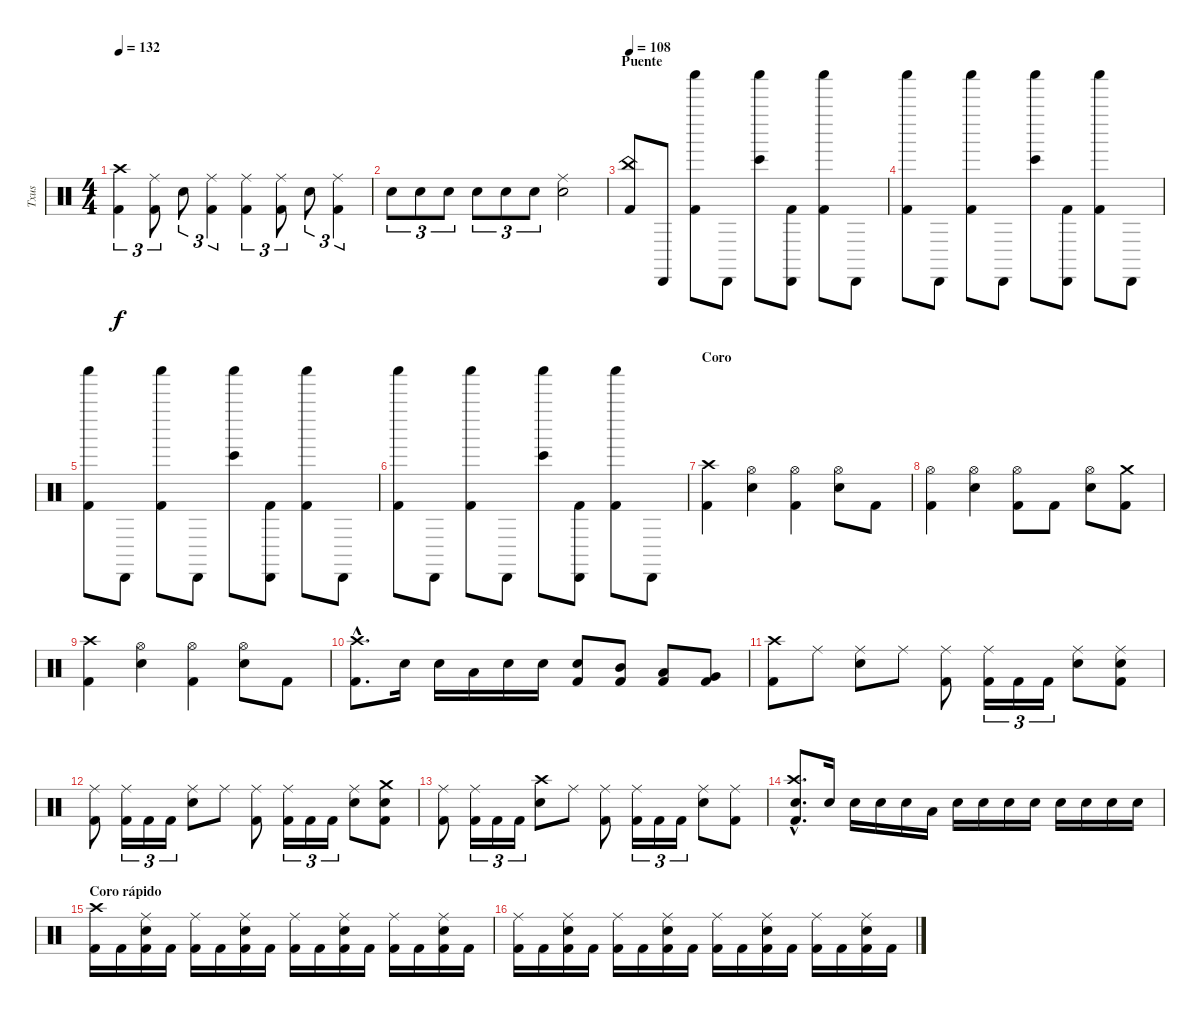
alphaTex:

\track ("Txus" "Txus") {instrument percussion}
\staff {score}
\articulation defaults
\ts (4 4)
\tempo 132
\clef neutral
\ks c
("Kick (hit) 2" "Crash high (hit)").4{tu (3 2) dy f} ("Kick (hit) 2" "Ride (middle)").8{tu (3 2)} "Electric Snare (hit)".8{tu (3 2)} ("Kick (hit) 2" "Ride (middle)").4{tu (3 2)} ("Kick (hit) 2" "Ride (middle)").4{tu (3 2)} ("Kick (hit) 2" "Ride (middle)").8{tu (3 2)} "Electric Snare (hit)".8{tu (3 2)} ("Kick (hit) 2" "Ride (middle)").4{tu (3 2)} |
"Electric Snare (hit)".8{tu (3 2)} "Electric Snare (hit)".8{tu (3 2)} "Electric Snare (hit)".8{tu (3 2)} "Electric Snare (hit)".8{tu (3 2)} "Electric Snare (hit)".8{tu (3 2)} "Electric Snare (hit)".8{tu (3 2)} ("Electric Snare (hit)" "Ride (middle)").2 |
\section ("" "Puente")
\tempo 108
("Kick (hit) 2" "China (hit)").8{volume 16} "Cabasa (hit)".8{volume 6} ("Kick (hit) 2" "Shaker (hit)").8{volume 16} "Cabasa (hit)".8{volume 6} ("Bongo High (hit)" "Shaker (hit)").8{volume 16} ("Kick (hit) 2" "Cabasa (hit)").8{volume 6} ("Kick (hit) 2" "Shaker (hit)").8{volume 16} "Cabasa (hit)".8{volume 6} |
("Kick (hit) 2" "Shaker (hit)").8{volume 16} "Cabasa (hit)".8{volume 6} ("Kick (hit) 2" "Shaker (hit)").8{volume 16} "Cabasa (hit)".8{volume 6} ("Bongo High (hit)" "Shaker (hit)").8{volume 16} ("Kick (hit) 2" "Cabasa (hit)").8{volume 6} ("Kick (hit) 2" "Shaker (hit)").8{volume 16} "Cabasa (hit)".8{volume 6} |
("Kick (hit) 2" "Shaker (hit)").8{volume 16} "Cabasa (hit)".8{volume 6} ("Kick (hit) 2" "Shaker (hit)").8{volume 16} "Cabasa (hit)".8{volume 6} ("Bongo High (hit)" "Shaker (hit)").8{volume 16} ("Kick (hit) 2" "Cabasa (hit)").8{volume 6} ("Kick (hit) 2" "Shaker (hit)").8{volume 16} "Cabasa (hit)".8{volume 6} |
("Kick (hit) 2" "Shaker (hit)").8{volume 16} "Cabasa (hit)".8{volume 6} ("Kick (hit) 2" "Shaker (hit)").8{volume 16} "Cabasa (hit)".8{volume 6} ("Bongo High (hit)" "Shaker (hit)").8{volume 16} ("Kick (hit) 2" "Cabasa (hit)").8{volume 6} ("Kick (hit) 2" "Shaker (hit)").8{volume 16} "Cabasa (hit)".8{volume 6} |
\section ("" "Coro")
("Kick (hit) 2" "Crash high (hit)").4{volume 16} ("Electric Snare (hit)" "Hi-Hat (open)").4 ("Kick (hit) 2" "Hi-Hat (open)").4 ("Electric Snare (hit)" "Hi-Hat (open)").8 "Kick (hit) 2".8 |
("Kick (hit) 2" "Hi-Hat (open)").4 ("Electric Snare (hit)" "Hi-Hat (open)").4 ("Kick (hit) 2" "Hi-Hat (open)").8 "Kick (hit) 2".8 ("Electric Snare (hit)" "Hi-Hat (open)").8 ("Kick (hit) 2" "Crash medium (hit)").8 |
("Kick (hit) 2" "Crash high (hit)").4 ("Electric Snare (hit)" "Hi-Hat (open)").4 ("Kick (hit) 2" "Hi-Hat (open)").4 ("Electric Snare (hit)" "Hi-Hat (open)").8 "Kick (hit) 2".8 |
("Kick (hit) 2"{hac} "Crash high (hit)"{hac}).8{d} "Electric Snare (hit)".16 "Electric Snare (hit)".16 "Low Tom (hit)".16 "Electric Snare (hit)".16 "Electric Snare (hit)".16 ("Kick (hit) 2" "Electric Snare (hit)").8 ("Kick (hit) 2" "Mid Tom (hit)").8 ("Kick (hit) 2" "Low Tom (hit)").8 ("Kick (hit) 2" "Very Low Tom (hit)").8 |
("Kick (hit) 2" "Crash high (hit)").8 "Ride (middle)".8 ("Electric Snare (hit)" "Ride (middle)").8 "Ride (middle)".8 ("Kick (hit) 2" "Ride (middle)").8 ("Kick (hit) 2" "Ride (middle)").16{tu (3 2)} "Kick (hit) 2".16{tu (3 2)} "Kick (hit) 2".16{tu (3 2)} ("Electric Snare (hit)" "Ride (middle)").8 ("Kick (hit) 2" "Electric Snare (hit)" "Ride (middle)").8 |
("Kick (hit) 2" "Ride (middle)").8 ("Kick (hit) 2" "Ride (middle)").16{tu (3 2)} "Kick (hit) 2".16{tu (3 2)} "Kick (hit) 2".16{tu (3 2)} ("Electric Snare (hit)" "Ride (middle)").8 "Ride (middle)".8 ("Kick (hit) 2" "Ride (middle)").8 ("Kick (hit) 2" "Ride (middle)").16{tu (3 2)} "Kick (hit) 2".16{tu (3 2)} "Kick (hit) 2".16{tu (3 2)} ("Electric Snare (hit)" "Ride (middle)").8 ("Kick (hit) 2" "Electric Snare (hit)" "Crash medium (hit)").8 |
("Kick (hit) 2" "Ride (middle)").8 ("Kick (hit) 2" "Ride (middle)").16{tu (3 2)} "Kick (hit) 2".16{tu (3 2)} "Kick (hit) 2".16{tu (3 2)} ("Electric Snare (hit)" "Crash high (hit)").8 "Ride (middle)".8 ("Kick (hit) 2" "Ride (middle)").8 ("Kick (hit) 2" "Ride (middle)").16{tu (3 2)} "Kick (hit) 2".16{tu (3 2)} "Kick (hit) 2".16{tu (3 2)} ("Electric Snare (hit)" "Ride (middle)").8 ("Kick (hit) 2" "Ride (middle)").8 |
("Kick (hit) 2"{hac} "Electric Snare (hit)"{hac} "Crash high (hit)"{hac}).8{d} "Electric Snare (hit)".16 "Electric Snare (hit)".16 "Electric Snare (hit)".16 "Electric Snare (hit)".16 "Low Tom (hit)".16 "Electric Snare (hit)".16 "Electric Snare (hit)".16 "Electric Snare (hit)".16 "Electric Snare (hit)".16 "Electric Snare (hit)".16 "Electric Snare (hit)".16 "Electric Snare (hit)".16 "Electric Snare (hit)".16 |
\section ("" "Coro rápido")
("Kick (hit) 2" "Crash high (hit)").16 "Kick (hit) 2".16 ("Kick (hit) 2" "Electric Snare (hit)" "Ride (middle)").16 "Kick (hit) 2".16 ("Kick (hit) 2" "Ride (middle)").16 "Kick (hit) 2".16 ("Kick (hit) 2" "Electric Snare (hit)" "Ride (middle)").16 "Kick (hit) 2".16 ("Kick (hit) 2" "Ride (middle)").16 "Kick (hit) 2".16 ("Kick (hit) 2" "Electric Snare (hit)" "Ride (middle)").16 "Kick (hit) 2".16 ("Kick (hit) 2" "Ride (middle)").16 "Kick (hit) 2".16 ("Kick (hit) 2" "Electric Snare (hit)" "Ride (middle)").16 "Kick (hit) 2".16 |
("Kick (hit) 2" "Ride (middle)").16 "Kick (hit) 2".16 ("Kick (hit) 2" "Electric Snare (hit)" "Ride (middle)").16 "Kick (hit) 2".16 ("Kick (hit) 2" "Ride (middle)").16 "Kick (hit) 2".16 ("Kick (hit) 2" "Electric Snare (hit)" "Ride (middle)").16 "Kick (hit) 2".16 ("Kick (hit) 2" "Ride (middle)").16 "Kick (hit) 2".16 ("Kick (hit) 2" "Electric Snare (hit)" "Ride (middle)").16 "Kick (hit) 2".16 ("Kick (hit) 2" "Ride (middle)").16 "Kick (hit) 2".16 ("Kick (hit) 2" "Electric Snare (hit)" "Ride (middle)").16 "Kick (hit) 2".16
